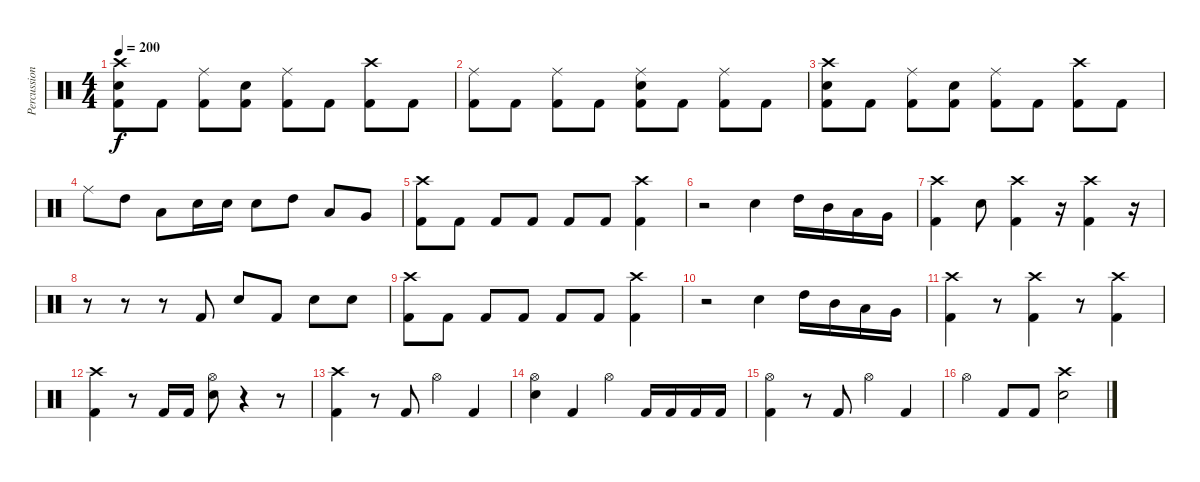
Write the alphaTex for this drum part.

\track ("Percussion" "Percussion") {instrument percussion}
\staff {score}
\articulation defaults
\ts (4 4)
\tempo 200
\clef neutral
\ks c
("Crash high (hit)" "Snare (hit) 2" "Kick (hit) 2").8{dy f} "Kick (hit) 2".8 ("Ride (middle)" "Kick (hit) 2").8 ("Snare (hit) 2" "Kick (hit) 2").8 ("Ride (middle)" "Kick (hit) 2").8 "Kick (hit) 2".8 ("Crash high (hit)" "Kick (hit) 2").8 "Kick (hit) 2".8 |
("Ride (middle)" "Kick (hit) 2").8 "Kick (hit) 2".8 ("Ride (middle)" "Kick (hit) 2").8 "Kick (hit) 2".8 ("Ride (middle)" "Snare (hit) 2" "Kick (hit) 2").8 "Kick (hit) 2".8 ("Ride (middle)" "Kick (hit) 2").8 "Kick (hit) 2".8 |
("Crash high (hit)" "Snare (hit) 2" "Kick (hit) 2").8 "Kick (hit) 2".8 ("Ride (middle)" "Kick (hit) 2").8 ("Snare (hit) 2" "Kick (hit) 2").8 ("Ride (middle)" "Kick (hit) 2").8 "Kick (hit) 2".8 ("Crash high (hit)" "Kick (hit) 2").8 "Kick (hit) 2".8 |
"Ride (middle)".8 "High Tom (hit)".8 "Low Tom (hit)".8 "Snare (hit) 2".16 "Snare (hit) 2".16 "Snare (hit) 2".8 "High Tom (hit)".8 "Low Tom (hit)".8 "Very Low Tom (hit)".8 |
("Crash high (hit)" "Kick (hit) 2").8 "Kick (hit) 2".8 "Kick (hit) 2".8 "Kick (hit) 2".8 "Kick (hit) 2".8 "Kick (hit) 2".8 ("Crash high (hit)" "Kick (hit) 2").4 |
r.2 "Snare (hit) 2".4 "High Tom (hit)".16 "Mid Tom (hit)".16 "Low Tom (hit)".16 "Very Low Tom (hit)".16 |
("Crash high (hit)" "Kick (hit) 2").4 "Snare (hit) 2".8 ("Crash high (hit)" "Kick (hit) 2").4 r.16 ("Crash high (hit)" "Kick (hit) 2").4 r.16 |
r.8 r.8 r.8 "Kick (hit) 2".8 "Snare (hit) 2".8 "Kick (hit) 2".8 "Snare (hit) 2".8 "Snare (hit) 2".8 |
("Crash high (hit)" "Kick (hit) 2").8 "Kick (hit) 2".8 "Kick (hit) 2".8 "Kick (hit) 2".8 "Kick (hit) 2".8 "Kick (hit) 2".8 ("Crash high (hit)" "Kick (hit) 2").4 |
r.2 "Snare (hit) 2".4 "High Tom (hit)".16 "Mid Tom (hit)".16 "Low Tom (hit)".16 "Very Low Tom (hit)".16 |
("Crash high (hit)" "Kick (hit) 2").4 r.8 ("Crash high (hit)" "Kick (hit) 2").4 r.8 ("Crash high (hit)" "Kick (hit) 2").4 |
("Crash high (hit)" "Kick (hit) 2").4 r.8 "Kick (hit) 2".16 "Kick (hit) 2".16 ("Hi-Hat (open)" "Snare (hit) 2").8 r.4 r.8 |
("Crash high (hit)" "Kick (hit) 2").4 r.8 "Kick (hit) 2".8 "Hi-Hat (open)".4 "Kick (hit) 2".4 |
("Hi-Hat (open)" "Snare (hit) 2").4 "Kick (hit) 2".4 "Hi-Hat (open)".4 "Kick (hit) 2".16 "Kick (hit) 2".16 "Kick (hit) 2".16 "Kick (hit) 2".16 |
("Hi-Hat (open)" "Kick (hit) 2").4 r.8 "Kick (hit) 2".8 "Hi-Hat (open)".4 "Kick (hit) 2".4 |
"Hi-Hat (open)".4 "Kick (hit) 2".8 "Kick (hit) 2".8 ("Crash high (hit)" "Snare (hit) 2").2
